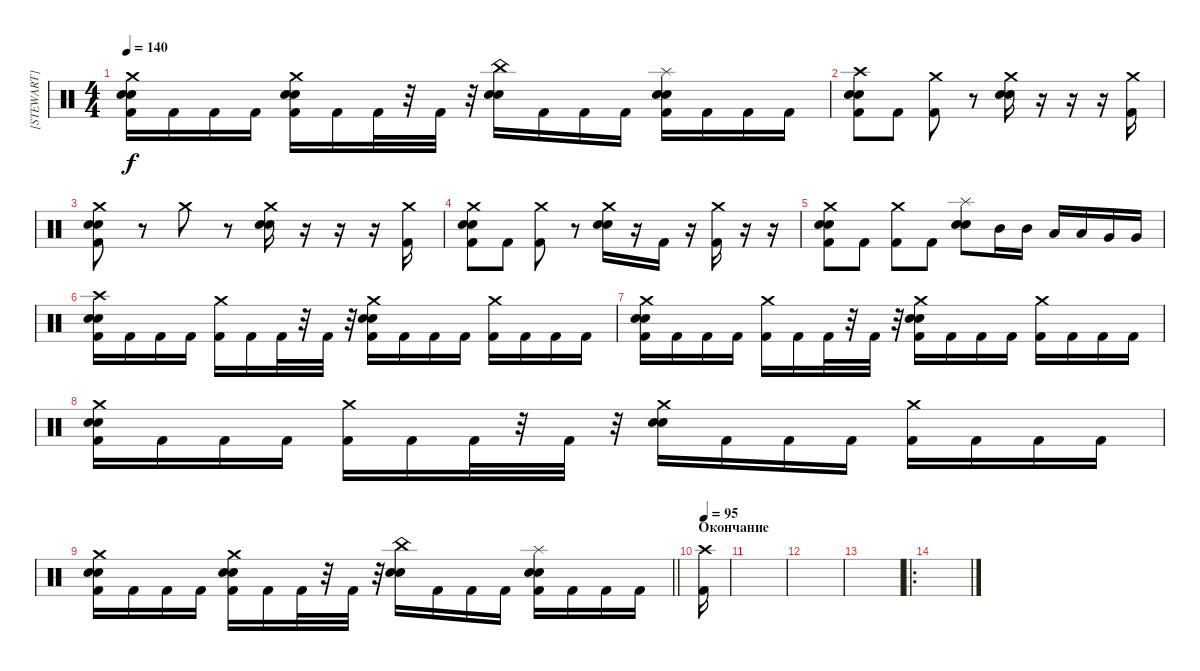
\track ("[STEWART]" "[STEWART]") {instrument percussion}
\staff {score}
\articulation defaults
\ts (4 4)
\tempo 140
\clef neutral
\ks c
("Crash medium (hit)" "Electric Snare (hit)" "Snare (hit) 2" "Kick (hit) 2").16{dy f} "Kick (hit) 2".16 "Kick (hit) 2".16 "Kick (hit) 2".16 ("Crash medium (hit)" "Electric Snare (hit)" "Snare (hit) 2" "Kick (hit) 2").16 "Kick (hit) 2".16 "Kick (hit) 2".32 r.32 "Kick (hit) 2".32 r.32 ("China (hit)" "Electric Snare (hit)" "Snare (hit) 2").16 "Kick (hit) 2".16 "Kick (hit) 2".16 "Kick (hit) 2".16 ("Splash (hit)" "Snare (hit) 2" "Electric Snare (hit)" "Kick (hit) 2").16 "Kick (hit) 2".16 "Kick (hit) 2".16 "Kick (hit) 2".16 |
("Crash high (hit)" "Snare (hit) 2" "Electric Snare (hit)" "Kick (hit) 2").8 "Kick (hit) 2".8 ("Crash medium (hit)" "Kick (hit) 2").8 r.8 ("Crash medium (hit)" "Electric Snare (hit)" "Snare (hit) 2").16 r.16 r.16 r.16 ("Crash medium (hit)" "Kick (hit) 2").16 |
("Crash medium (hit)" "Electric Snare (hit)" "Snare (hit) 2" "Kick (hit) 2").8 r.8 "Crash medium (hit)".8 r.8 ("Crash medium (hit)" "Electric Snare (hit)" "Snare (hit) 2").16 r.16 r.16 r.16 ("Crash medium (hit)" "Kick (hit) 2").16 |
("Crash medium (hit)" "Snare (hit) 2" "Electric Snare (hit)" "Kick (hit) 2").8 "Kick (hit) 2".8 ("Crash medium (hit)" "Kick (hit) 2").8 r.8 ("Crash medium (hit)" "Electric Snare (hit)" "Snare (hit) 2").16 r.16 "Kick (hit) 2".16 r.16 ("Crash medium (hit)" "Kick (hit) 2").16 r.16 r.16 |
("Crash medium (hit)" "Electric Snare (hit)" "Snare (hit) 2" "Kick (hit) 2").8 "Kick (hit) 2".8 ("Crash medium (hit)" "Kick (hit) 2").8 "Kick (hit) 2".8 ("Splash (hit)" "Electric Snare (hit)" "Snare (hit) 2").8 "Mid Tom (hit)".16 "Mid Tom (hit)".16 "Low Tom (hit)".16 "Low Tom (hit)".16 "Very Low Tom (hit)".16 "Very Low Tom (hit)".16 |
("Crash high (hit)" "Snare (hit) 2" "Electric Snare (hit)" "Kick (hit) 2").16 "Kick (hit) 2".16 "Kick (hit) 2".16 "Kick (hit) 2".16 ("Crash medium (hit)" "Kick (hit) 2").16 "Kick (hit) 2".16 "Kick (hit) 2".32 r.32 "Kick (hit) 2".32 r.32 ("Crash medium (hit)" "Snare (hit) 2" "Electric Snare (hit)" "Kick (hit) 2").16 "Kick (hit) 2".16 "Kick (hit) 2".16 "Kick (hit) 2".16 ("Crash medium (hit)" "Kick (hit) 2").16 "Kick (hit) 2".16 "Kick (hit) 2".16 "Kick (hit) 2".16 |
("Crash medium (hit)" "Snare (hit) 2" "Electric Snare (hit)" "Kick (hit) 2").16 "Kick (hit) 2".16 "Kick (hit) 2".16 "Kick (hit) 2".16 ("Crash medium (hit)" "Kick (hit) 2").16 "Kick (hit) 2".16 "Kick (hit) 2".32 r.32 "Kick (hit) 2".32 r.32 ("Crash medium (hit)" "Snare (hit) 2" "Electric Snare (hit)" "Kick (hit) 2").16 "Kick (hit) 2".16 "Kick (hit) 2".16 "Kick (hit) 2".16 ("Crash medium (hit)" "Kick (hit) 2").16 "Kick (hit) 2".16 "Kick (hit) 2".16 "Kick (hit) 2".16 |
("Crash medium (hit)" "Electric Snare (hit)" "Snare (hit) 2" "Kick (hit) 2").16 "Kick (hit) 2".16 "Kick (hit) 2".16 "Kick (hit) 2".16 ("Crash medium (hit)" "Kick (hit) 2").16 "Kick (hit) 2".16 "Kick (hit) 2".32 r.32 "Kick (hit) 2".32 r.32 ("Crash medium (hit)" "Electric Snare (hit)" "Snare (hit) 2").16 "Kick (hit) 2".16 "Kick (hit) 2".16 "Kick (hit) 2".16 ("Crash medium (hit)" "Kick (hit) 2").16 "Kick (hit) 2".16 "Kick (hit) 2".16 "Kick (hit) 2".16 |
\barLineRight lightlight
("Crash medium (hit)" "Electric Snare (hit)" "Snare (hit) 2" "Kick (hit) 2").16 "Kick (hit) 2".16 "Kick (hit) 2".16 "Kick (hit) 2".16 ("Crash medium (hit)" "Electric Snare (hit)" "Snare (hit) 2" "Kick (hit) 2").16 "Kick (hit) 2".16 "Kick (hit) 2".32 r.32 "Kick (hit) 2".32 r.32 ("China (hit)" "Electric Snare (hit)" "Snare (hit) 2").16 "Kick (hit) 2".16 "Kick (hit) 2".16 "Kick (hit) 2".16 ("Splash (hit)" "Snare (hit) 2" "Electric Snare (hit)" "Kick (hit) 2").16 "Kick (hit) 2".16 "Kick (hit) 2".16 "Kick (hit) 2".16 |
\section ("" "Окончание")
\tempo 95
("Crash high (hit)" "Kick (hit) 2").16 |
|
|
|
\ro
